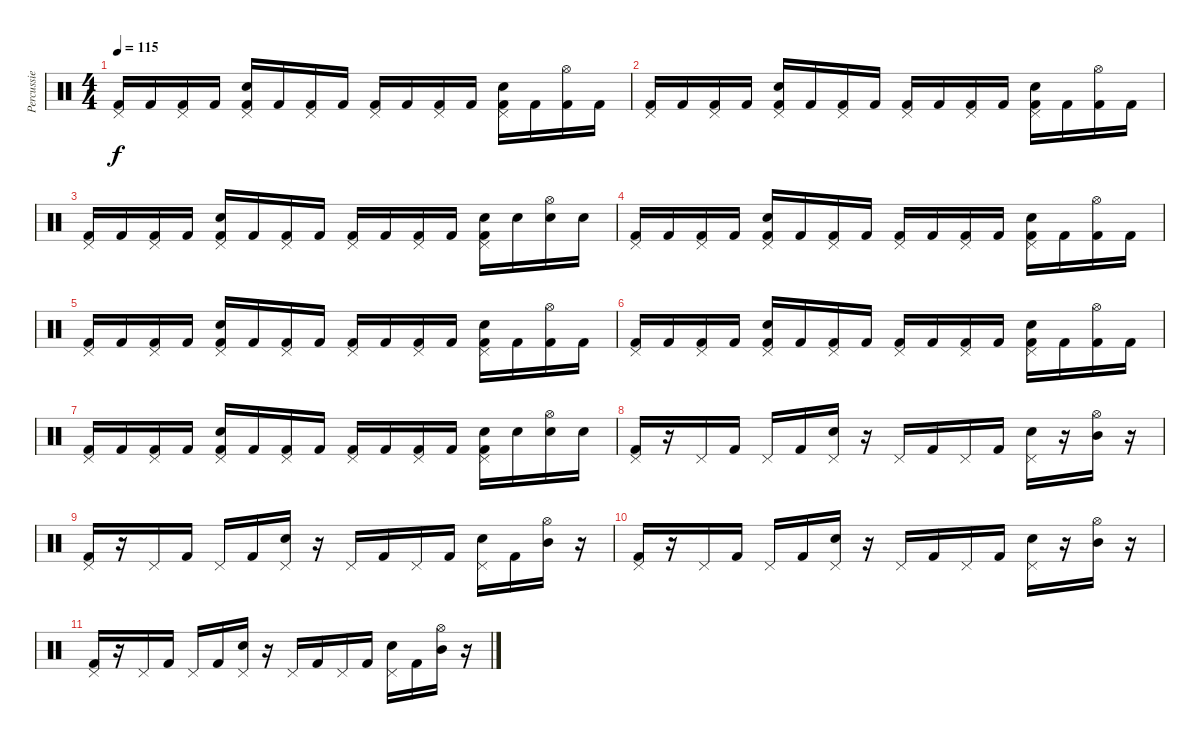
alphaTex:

\track ("Percussie" "Percussie") {instrument percussion}
\staff {score}
\articulation defaults
\ts (4 4)
\tempo 115
\clef neutral
\ks c
("Pedal Hi-Hat (hit)" "Kick (hit) 2").16{dy f} "Kick (hit) 2".16 ("Pedal Hi-Hat (hit)" "Kick (hit) 2").16 "Kick (hit) 2".16 ("Pedal Hi-Hat (hit)" "Kick (hit) 2" "Snare (hit) 2").16 "Kick (hit) 2".16 ("Pedal Hi-Hat (hit)" "Kick (hit) 2").16 "Kick (hit) 2".16 ("Pedal Hi-Hat (hit)" "Kick (hit) 2").16 "Kick (hit) 2".16 ("Pedal Hi-Hat (hit)" "Kick (hit) 2").16 "Kick (hit) 2".16 ("Pedal Hi-Hat (hit)" "Kick (hit) 2" "Snare (hit) 2").16 "Kick (hit) 2".16 ("Hi-Hat (open)" "Kick (hit) 2").16 "Kick (hit) 2".16 |
("Pedal Hi-Hat (hit)" "Kick (hit) 2").16 "Kick (hit) 2".16 ("Pedal Hi-Hat (hit)" "Kick (hit) 2").16 "Kick (hit) 2".16 ("Pedal Hi-Hat (hit)" "Kick (hit) 2" "Snare (hit) 2").16 "Kick (hit) 2".16 ("Pedal Hi-Hat (hit)" "Kick (hit) 2").16 "Kick (hit) 2".16 ("Pedal Hi-Hat (hit)" "Kick (hit) 2").16 "Kick (hit) 2".16 ("Pedal Hi-Hat (hit)" "Kick (hit) 2").16 "Kick (hit) 2".16 ("Pedal Hi-Hat (hit)" "Kick (hit) 2" "Snare (hit) 2").16 "Kick (hit) 2".16 ("Hi-Hat (open)" "Kick (hit) 2").16 "Kick (hit) 2".16 |
("Pedal Hi-Hat (hit)" "Kick (hit) 2").16 "Kick (hit) 2".16 ("Pedal Hi-Hat (hit)" "Kick (hit) 2").16 "Kick (hit) 2".16 ("Pedal Hi-Hat (hit)" "Kick (hit) 2" "Snare (hit) 2").16 "Kick (hit) 2".16 ("Pedal Hi-Hat (hit)" "Kick (hit) 2").16 "Kick (hit) 2".16 ("Pedal Hi-Hat (hit)" "Kick (hit) 2").16 "Kick (hit) 2".16 ("Pedal Hi-Hat (hit)" "Kick (hit) 2").16 "Kick (hit) 2".16 ("Pedal Hi-Hat (hit)" "Kick (hit) 2" "Snare (hit) 2").16 "Snare (hit) 2".16 ("Hi-Hat (open)" "Snare (hit) 2").16 "Snare (hit) 2".16 |
("Pedal Hi-Hat (hit)" "Kick (hit) 2").16 "Kick (hit) 2".16 ("Pedal Hi-Hat (hit)" "Kick (hit) 2").16 "Kick (hit) 2".16 ("Pedal Hi-Hat (hit)" "Kick (hit) 2" "Snare (hit) 2").16 "Kick (hit) 2".16 ("Pedal Hi-Hat (hit)" "Kick (hit) 2").16 "Kick (hit) 2".16 ("Pedal Hi-Hat (hit)" "Kick (hit) 2").16 "Kick (hit) 2".16 ("Pedal Hi-Hat (hit)" "Kick (hit) 2").16 "Kick (hit) 2".16 ("Pedal Hi-Hat (hit)" "Kick (hit) 2" "Snare (hit) 2").16 "Kick (hit) 2".16 ("Hi-Hat (open)" "Kick (hit) 2").16 "Kick (hit) 2".16 |
("Pedal Hi-Hat (hit)" "Kick (hit) 2").16 "Kick (hit) 2".16 ("Pedal Hi-Hat (hit)" "Kick (hit) 2").16 "Kick (hit) 2".16 ("Pedal Hi-Hat (hit)" "Kick (hit) 2" "Snare (hit) 2").16 "Kick (hit) 2".16 ("Pedal Hi-Hat (hit)" "Kick (hit) 2").16 "Kick (hit) 2".16 ("Pedal Hi-Hat (hit)" "Kick (hit) 2").16 "Kick (hit) 2".16 ("Pedal Hi-Hat (hit)" "Kick (hit) 2").16 "Kick (hit) 2".16 ("Pedal Hi-Hat (hit)" "Kick (hit) 2" "Snare (hit) 2").16 "Kick (hit) 2".16 ("Hi-Hat (open)" "Kick (hit) 2").16 "Kick (hit) 2".16 |
("Pedal Hi-Hat (hit)" "Kick (hit) 2").16 "Kick (hit) 2".16 ("Pedal Hi-Hat (hit)" "Kick (hit) 2").16 "Kick (hit) 2".16 ("Pedal Hi-Hat (hit)" "Kick (hit) 2" "Snare (hit) 2").16 "Kick (hit) 2".16 ("Pedal Hi-Hat (hit)" "Kick (hit) 2").16 "Kick (hit) 2".16 ("Pedal Hi-Hat (hit)" "Kick (hit) 2").16 "Kick (hit) 2".16 ("Pedal Hi-Hat (hit)" "Kick (hit) 2").16 "Kick (hit) 2".16 ("Pedal Hi-Hat (hit)" "Kick (hit) 2" "Snare (hit) 2").16 "Kick (hit) 2".16 ("Hi-Hat (open)" "Kick (hit) 2").16 "Kick (hit) 2".16 |
("Pedal Hi-Hat (hit)" "Kick (hit) 2").16 "Kick (hit) 2".16 ("Pedal Hi-Hat (hit)" "Kick (hit) 2").16 "Kick (hit) 2".16 ("Pedal Hi-Hat (hit)" "Kick (hit) 2" "Snare (hit) 2").16 "Kick (hit) 2".16 ("Pedal Hi-Hat (hit)" "Kick (hit) 2").16 "Kick (hit) 2".16 ("Pedal Hi-Hat (hit)" "Kick (hit) 2").16 "Kick (hit) 2".16 ("Pedal Hi-Hat (hit)" "Kick (hit) 2").16 "Kick (hit) 2".16 ("Pedal Hi-Hat (hit)" "Kick (hit) 2" "Snare (hit) 2").16 "Snare (hit) 2".16 ("Hi-Hat (open)" "Snare (hit) 2").16 "Snare (hit) 2".16 |
("Pedal Hi-Hat (hit)" "Kick (hit) 2").16 r.16 "Pedal Hi-Hat (hit)".16 "Kick (hit) 2".16 "Pedal Hi-Hat (hit)".16 "Kick (hit) 2".16 ("Pedal Hi-Hat (hit)" "Snare (hit) 2").16 r.16 "Pedal Hi-Hat (hit)".16 "Kick (hit) 2".16 "Pedal Hi-Hat (hit)".16 "Kick (hit) 2".16 ("Pedal Hi-Hat (hit)" "Snare (hit) 2").16 r.16 ("Hi-Hat (open)" "Mid Tom (hit)").16 r.16 |
("Pedal Hi-Hat (hit)" "Kick (hit) 2").16 r.16 "Pedal Hi-Hat (hit)".16 "Kick (hit) 2".16 "Pedal Hi-Hat (hit)".16 "Kick (hit) 2".16 ("Pedal Hi-Hat (hit)" "Snare (hit) 2").16 r.16 "Pedal Hi-Hat (hit)".16 "Kick (hit) 2".16 "Pedal Hi-Hat (hit)".16 "Kick (hit) 2".16 ("Pedal Hi-Hat (hit)" "Snare (hit) 2").16 "Kick (hit) 2".16 ("Hi-Hat (open)" "Mid Tom (hit)").16 r.16 |
("Pedal Hi-Hat (hit)" "Kick (hit) 2").16 r.16 "Pedal Hi-Hat (hit)".16 "Kick (hit) 2".16 "Pedal Hi-Hat (hit)".16 "Kick (hit) 2".16 ("Pedal Hi-Hat (hit)" "Snare (hit) 2").16 r.16 "Pedal Hi-Hat (hit)".16 "Kick (hit) 2".16 "Pedal Hi-Hat (hit)".16 "Kick (hit) 2".16 ("Pedal Hi-Hat (hit)" "Snare (hit) 2").16 r.16 ("Hi-Hat (open)" "Mid Tom (hit)").16 r.16 |
("Pedal Hi-Hat (hit)" "Kick (hit) 2").16 r.16 "Pedal Hi-Hat (hit)".16 "Kick (hit) 2".16 "Pedal Hi-Hat (hit)".16 "Kick (hit) 2".16 ("Pedal Hi-Hat (hit)" "Snare (hit) 2").16 r.16 "Pedal Hi-Hat (hit)".16 "Kick (hit) 2".16 "Pedal Hi-Hat (hit)".16 "Kick (hit) 2".16 ("Pedal Hi-Hat (hit)" "Snare (hit) 2").16 "Kick (hit) 2".16 ("Hi-Hat (open)" "Mid Tom (hit)").16 r.16
